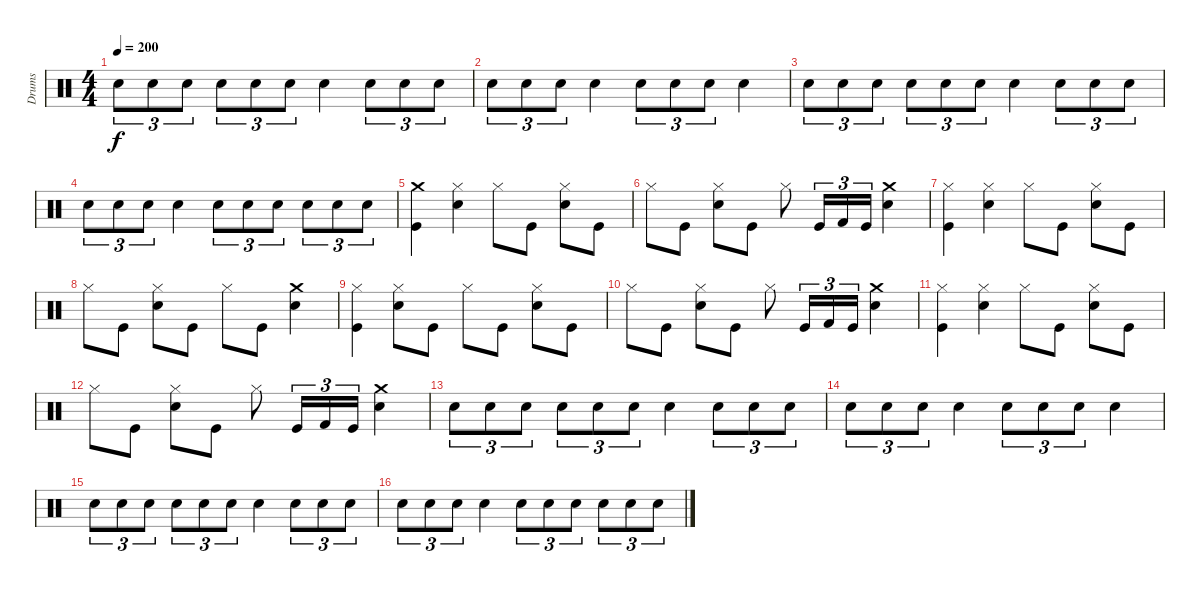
\track ("Drums" "Drums") {instrument percussion}
\staff {score}
\articulation defaults
\ts (4 4)
\tempo 200
\clef neutral
\ks c "Snare (hit) 2".8{tu (3 2) dy f} "Snare (hit) 2".8{tu (3 2)} "Snare (hit) 2".8{tu (3 2)} "Snare (hit) 2".8{tu (3 2)} "Snare (hit) 2".8{tu (3 2)} "Snare (hit) 2".8{tu (3 2)} "Snare (hit) 2".4 "Snare (hit) 2".8{tu (3 2)} "Snare (hit) 2".8{tu (3 2)} "Snare (hit) 2".8{tu (3 2)}
|
"Snare (hit) 2".8{tu (3 2)} "Snare (hit) 2".8{tu (3 2)} "Snare (hit) 2".8{tu (3 2)} "Snare (hit) 2".4 "Snare (hit) 2".8{tu (3 2)} "Snare (hit) 2".8{tu (3 2)} "Snare (hit) 2".8{tu (3 2)} "Snare (hit) 2".4 |
"Snare (hit) 2".8{tu (3 2)} "Snare (hit) 2".8{tu (3 2)} "Snare (hit) 2".8{tu (3 2)} "Snare (hit) 2".8{tu (3 2)} "Snare (hit) 2".8{tu (3 2)} "Snare (hit) 2".8{tu (3 2)} "Snare (hit) 2".4 "Snare (hit) 2".8{tu (3 2)} "Snare (hit) 2".8{tu (3 2)} "Snare (hit) 2".8{tu (3 2)} |
"Snare (hit) 2".8{tu (3 2)} "Snare (hit) 2".8{tu (3 2)} "Snare (hit) 2".8{tu (3 2)} "Snare (hit) 2".4 "Snare (hit) 2".8{tu (3 2)} "Snare (hit) 2".8{tu (3 2)} "Snare (hit) 2".8{tu (3 2)} "Snare (hit) 2".8{tu (3 2)} "Snare (hit) 2".8{tu (3 2)} "Snare (hit) 2".8{tu (3 2)} |
("Kick (hit)" "Crash medium (hit)").4 ("Hi-Hat (closed)" "Snare (hit) 2").4 "Hi-Hat (closed)".8 "Kick (hit)".8 ("Hi-Hat (closed)" "Snare (hit) 2").8 "Kick (hit)".8 |
"Hi-Hat (closed)".8 "Kick (hit)".8 ("Snare (hit) 2" "Hi-Hat (closed)").8 "Kick (hit)".8 "Hi-Hat (closed)".8 "Kick (hit)".16{tu (3 2)} "Kick (hit) 2".16{tu (3 2)} "Kick (hit)".16{tu (3 2)} ("Crash medium (hit)" "Snare (hit) 2").4 |
("Hi-Hat (closed)" "Kick (hit)").4 ("Snare (hit) 2" "Hi-Hat (closed)").4 "Hi-Hat (closed)".8 "Kick (hit)".8 ("Snare (hit) 2" "Hi-Hat (closed)").8 "Kick (hit)".8 |
"Hi-Hat (closed)".8 "Kick (hit)".8 ("Snare (hit) 2" "Hi-Hat (closed)").8 "Kick (hit)".8 "Hi-Hat (closed)".8 "Kick (hit)".8 ("Crash medium (hit)" "Snare (hit) 2").4 |
("Kick (hit)" "Hi-Hat (closed)").4 ("Snare (hit) 2" "Hi-Hat (closed)").8 "Kick (hit)".8 "Hi-Hat (closed)".8 "Kick (hit)".8 ("Hi-Hat (closed)" "Snare (hit) 2").8 "Kick (hit)".8 |
"Hi-Hat (closed)".8 "Kick (hit)".8 ("Snare (hit) 2" "Hi-Hat (closed)").8 "Kick (hit)".8 "Hi-Hat (closed)".8 "Kick (hit)".16{tu (3 2)} "Kick (hit) 2".16{tu (3 2)} "Kick (hit)".16{tu (3 2)} ("Crash medium (hit)" "Snare (hit) 2").4 |
("Hi-Hat (closed)" "Kick (hit)").4 ("Snare (hit) 2" "Hi-Hat (closed)").4 "Hi-Hat (closed)".8 "Kick (hit)".8 ("Snare (hit) 2" "Hi-Hat (closed)").8 "Kick (hit)".8 |
"Hi-Hat (closed)".8 "Kick (hit)".8 ("Snare (hit) 2" "Hi-Hat (closed)").8 "Kick (hit)".8 "Hi-Hat (closed)".8 "Kick (hit)".16{tu (3 2)} "Kick (hit) 2".16{tu (3 2)} "Kick (hit)".16{tu (3 2)} ("Crash medium (hit)" "Snare (hit) 2").4 |
"Snare (hit) 2".8{tu (3 2)} "Snare (hit) 2".8{tu (3 2)} "Snare (hit) 2".8{tu (3 2)} "Snare (hit) 2".8{tu (3 2)} "Snare (hit) 2".8{tu (3 2)} "Snare (hit) 2".8{tu (3 2)} "Snare (hit) 2".4 "Snare (hit) 2".8{tu (3 2)} "Snare (hit) 2".8{tu (3 2)} "Snare (hit) 2".8{tu (3 2)} |
"Snare (hit) 2".8{tu (3 2)} "Snare (hit) 2".8{tu (3 2)} "Snare (hit) 2".8{tu (3 2)} "Snare (hit) 2".4 "Snare (hit) 2".8{tu (3 2)} "Snare (hit) 2".8{tu (3 2)} "Snare (hit) 2".8{tu (3 2)} "Snare (hit) 2".4 |
"Snare (hit) 2".8{tu (3 2)} "Snare (hit) 2".8{tu (3 2)} "Snare (hit) 2".8{tu (3 2)} "Snare (hit) 2".8{tu (3 2)} "Snare (hit) 2".8{tu (3 2)} "Snare (hit) 2".8{tu (3 2)} "Snare (hit) 2".4 "Snare (hit) 2".8{tu (3 2)} "Snare (hit) 2".8{tu (3 2)} "Snare (hit) 2".8{tu (3 2)} |
"Snare (hit) 2".8{tu (3 2)} "Snare (hit) 2".8{tu (3 2)} "Snare (hit) 2".8{tu (3 2)} "Snare (hit) 2".4 "Snare (hit) 2".8{tu (3 2)} "Snare (hit) 2".8{tu (3 2)} "Snare (hit) 2".8{tu (3 2)} "Snare (hit) 2".8{tu (3 2)} "Snare (hit) 2".8{tu (3 2)} "Snare (hit) 2".8{tu (3 2)}
